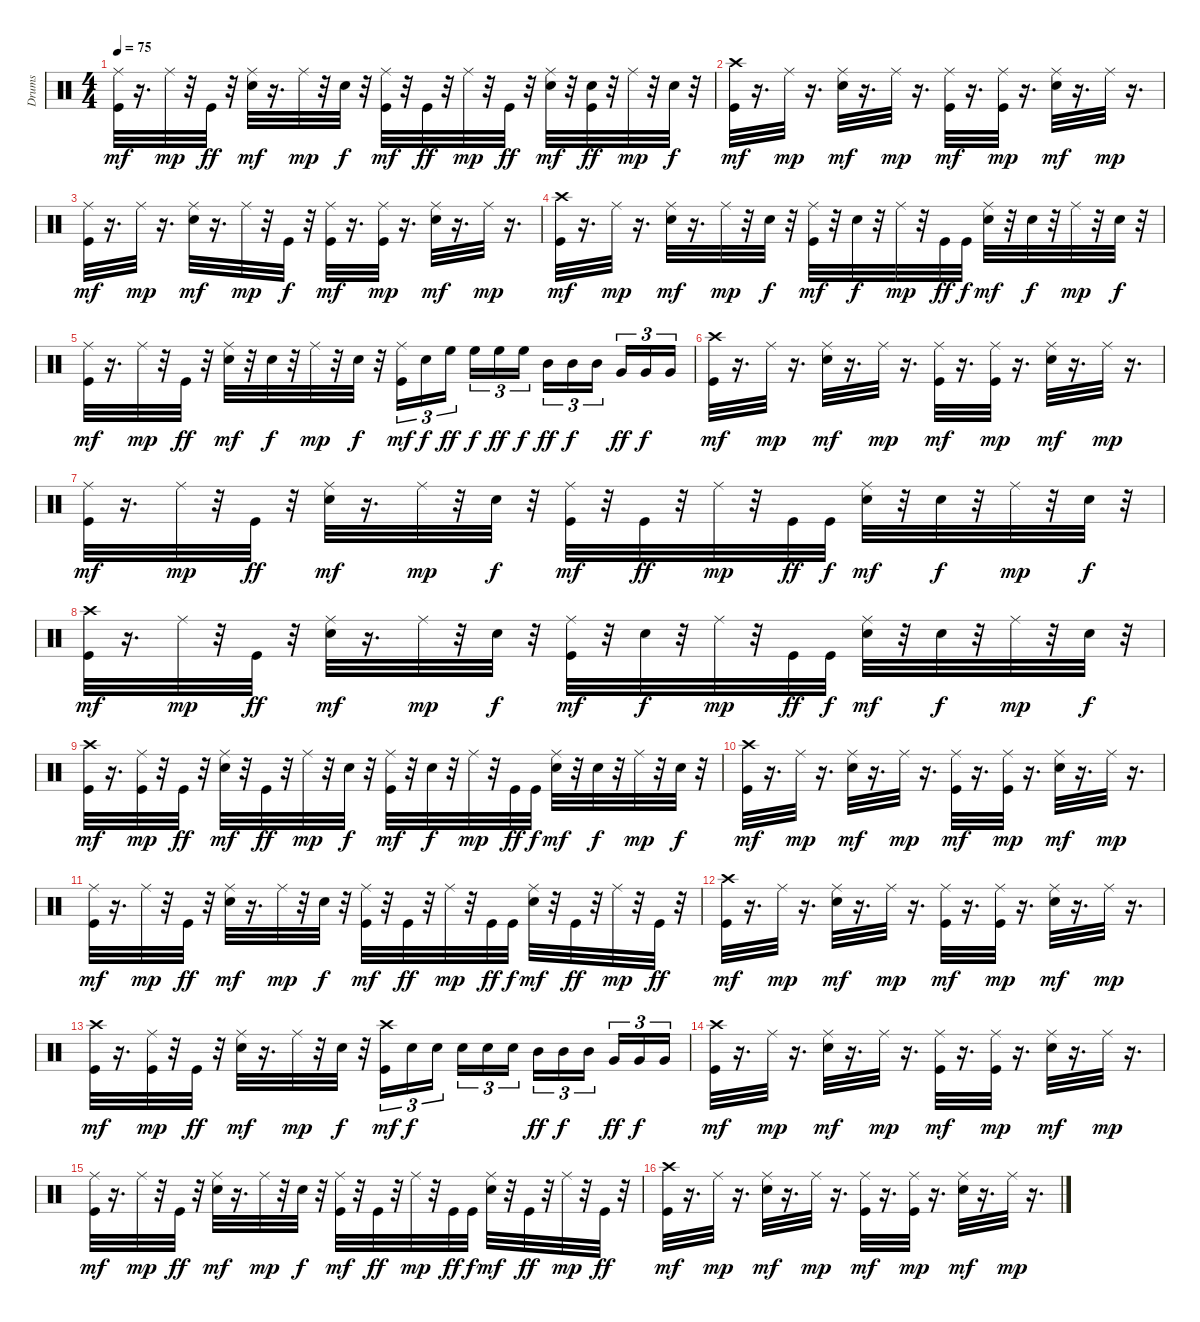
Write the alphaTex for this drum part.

\track ("Drums" "Drums") {instrument percussion}
\staff {score}
\articulation defaults
\ts (4 4)
\tempo 75
\clef neutral
\ks c
("Kick (hit)" "Ride (middle)").32{dy mf} r.16{d} "Ride (middle)".32{dy mp} r.32 "Kick (hit)".32{dy ff} r.32 ("Snare (hit) 2" "Ride (middle)").32{dy mf} r.16{d} "Ride (middle)".32{dy mp} r.32 "Snare (hit) 2".32{dy f} r.32 ("Kick (hit)" "Ride (middle)").32{dy mf} r.32 "Kick (hit)".32{dy ff} r.32 "Ride (middle)".32{dy mp} r.32 "Kick (hit)".32{dy ff} r.32 ("Snare (hit) 2" "Ride (middle)").32{dy mf} r.32 ("Kick (hit)" "Snare (hit) 2").32{dy ff} r.32 "Ride (middle)".32{dy mp} r.32 "Snare (hit) 2".32{dy f} r.32 |
("Kick (hit)" "Crash high (hit)").32{dy mf} r.16{d} "Ride (middle)".32{dy mp} r.16{d} ("Snare (hit) 2" "Ride (middle)").32{dy mf} r.16{d} "Ride (middle)".32{dy mp} r.16{d} ("Kick (hit)" "Ride (middle)").32{dy mf} r.16{d} ("Kick (hit)" "Ride (middle)").32{dy mp} r.16{d} ("Snare (hit) 2" "Ride (middle)").32{dy mf} r.16{d} "Ride (middle)".32{dy mp} r.16{d} |
("Kick (hit)" "Ride (middle)").32{dy mf} r.16{d} "Ride (middle)".32{dy mp} r.16{d} ("Snare (hit) 2" "Ride (middle)").32{dy mf} r.16{d} "Ride (middle)".32{dy mp} r.32 "Kick (hit)".32{dy f} r.32 ("Kick (hit)" "Ride (middle)").32{dy mf} r.16{d} ("Kick (hit)" "Ride (middle)").32{dy mp} r.16{d} ("Snare (hit) 2" "Ride (middle)").32{dy mf} r.16{d} "Ride (middle)".32{dy mp} r.16{d} |
("Kick (hit)" "Crash high (hit)").32{dy mf} r.16{d} "Ride (middle)".32{dy mp} r.16{d} ("Snare (hit) 2" "Ride (middle)").32{dy mf} r.16{d} "Ride (middle)".32{dy mp} r.32 "Snare (hit) 2".32{dy f} r.32 ("Kick (hit)" "Ride (middle)").32{dy mf} r.32 "Snare (hit) 2".32{dy f} r.32 "Ride (middle)".32{dy mp} r.32 "Kick (hit)".32{dy ff} "Kick (hit)".32{dy f} ("Snare (hit) 2" "Ride (middle)").32{dy mf} r.32 "Snare (hit) 2".32{dy f} r.32 "Ride (middle)".32{dy mp} r.32 "Snare (hit) 2".32{dy f} r.32 |
("Kick (hit)" "Ride (middle)").32{dy mf} r.16{d} "Ride (middle)".32{dy mp} r.32 "Kick (hit)".32{dy ff} r.32 ("Snare (hit) 2" "Ride (middle)").32{dy mf} r.32 "Snare (hit) 2".32{dy f} r.32 "Ride (middle)".32{dy mp} r.32 "Snare (hit) 2".32{dy f} r.32 ("Kick (hit)" "Ride (middle)").16{tu (3 2) dy mf} "Snare (hit) 2".16{tu (3 2) dy f} "High Floor Tom (hit)".16{tu (3 2) dy ff} "High Floor Tom (hit)".16{tu (3 2) dy f} "High Floor Tom (hit)".16{tu (3 2) dy ff} "High Floor Tom (hit)".16{tu (3 2) dy f} "Mid Tom (hit)".16{tu (3 2) dy ff} "Mid Tom (hit)".16{tu (3 2) dy f} "Mid Tom (hit)".16{tu (3 2)} "Very Low Tom (hit)".16{tu (3 2) dy ff} "Very Low Tom (hit)".16{tu (3 2) dy f} "Very Low Tom (hit)".16{tu (3 2)} |
("Kick (hit)" "Crash high (hit)").32{dy mf} r.16{d} "Ride (middle)".32{dy mp} r.16{d} ("Snare (hit) 2" "Ride (middle)").32{dy mf} r.16{d} "Ride (middle)".32{dy mp} r.16{d} ("Kick (hit)" "Ride (middle)").32{dy mf} r.16{d} ("Kick (hit)" "Ride (middle)").32{dy mp} r.16{d} ("Snare (hit) 2" "Ride (middle)").32{dy mf} r.16{d} "Ride (middle)".32{dy mp} r.16{d} |
("Kick (hit)" "Ride (middle)").32{dy mf} r.16{d} "Ride (middle)".32{dy mp} r.32 "Kick (hit)".32{dy ff} r.32 ("Snare (hit) 2" "Ride (middle)").32{dy mf} r.16{d} "Ride (middle)".32{dy mp} r.32 "Snare (hit) 2".32{dy f} r.32 ("Kick (hit)" "Ride (middle)").32{dy mf} r.32 "Kick (hit)".32{dy ff} r.32 "Ride (middle)".32{dy mp} r.32 "Kick (hit)".32{dy ff} "Kick (hit)".32{dy f} ("Snare (hit) 2" "Ride (middle)").32{dy mf} r.32 "Snare (hit) 2".32{dy f} r.32 "Ride (middle)".32{dy mp} r.32 "Snare (hit) 2".32{dy f} r.32 |
("Kick (hit)" "Crash high (hit)").32{dy mf} r.16{d} "Ride (middle)".32{dy mp} r.32 "Kick (hit)".32{dy ff} r.32 ("Snare (hit) 2" "Ride (middle)").32{dy mf} r.16{d} "Ride (middle)".32{dy mp} r.32 "Snare (hit) 2".32{dy f} r.32 ("Kick (hit)" "Ride (middle)").32{dy mf} r.32 "Snare (hit) 2".32{dy f} r.32 "Ride (middle)".32{dy mp} r.32 "Kick (hit)".32{dy ff} "Kick (hit)".32{dy f} ("Snare (hit) 2" "Ride (middle)").32{dy mf} r.32 "Snare (hit) 2".32{dy f} r.32 "Ride (middle)".32{dy mp} r.32 "Snare (hit) 2".32{dy f} r.32 |
("Kick (hit)" "Crash high (hit)").32{dy mf} r.16{d} ("Kick (hit)" "Ride (middle)").32{dy mp} r.32 "Kick (hit)".32{dy ff} r.32 ("Snare (hit) 2" "Ride (middle)").32{dy mf} r.32 "Kick (hit)".32{dy ff} r.32 "Ride (middle)".32{dy mp} r.32 "Snare (hit) 2".32{dy f} r.32 ("Kick (hit)" "Ride (middle)").32{dy mf} r.32 "Snare (hit) 2".32{dy f} r.32 "Ride (middle)".32{dy mp} r.32 "Kick (hit)".32{dy ff} "Kick (hit)".32{dy f} ("Snare (hit) 2" "Ride (middle)").32{dy mf} r.32 "Snare (hit) 2".32{dy f} r.32 "Ride (middle)".32{dy mp} r.32 "Snare (hit) 2".32{dy f} r.32 |
("Kick (hit)" "Crash high (hit)").32{dy mf} r.16{d} "Ride (middle)".32{dy mp} r.16{d} ("Snare (hit) 2" "Ride (middle)").32{dy mf} r.16{d} "Ride (middle)".32{dy mp} r.16{d} ("Kick (hit)" "Ride (middle)").32{dy mf} r.16{d} ("Kick (hit)" "Ride (middle)").32{dy mp} r.16{d} ("Snare (hit) 2" "Ride (middle)").32{dy mf} r.16{d} "Ride (middle)".32{dy mp} r.16{d} |
("Kick (hit)" "Ride (middle)").32{dy mf} r.16{d} "Ride (middle)".32{dy mp} r.32 "Kick (hit)".32{dy ff} r.32 ("Snare (hit) 2" "Ride (middle)").32{dy mf} r.16{d} "Ride (middle)".32{dy mp} r.32 "Snare (hit) 2".32{dy f} r.32 ("Kick (hit)" "Ride (middle)").32{dy mf} r.32 "Kick (hit)".32{dy ff} r.32 "Ride (middle)".32{dy mp} r.32 "Kick (hit)".32{dy ff} "Kick (hit)".32{dy f} ("Snare (hit) 2" "Ride (middle)").32{dy mf} r.32 "Kick (hit)".32{dy ff} r.32 "Ride (middle)".32{dy mp} r.32 "Kick (hit)".32{dy ff} r.32 |
("Kick (hit)" "Crash high (hit)").32{dy mf} r.16{d} "Ride (middle)".32{dy mp} r.16{d} ("Snare (hit) 2" "Ride (middle)").32{dy mf} r.16{d} "Ride (middle)".32{dy mp} r.16{d} ("Kick (hit)" "Ride (middle)").32{dy mf} r.16{d} ("Kick (hit)" "Ride (middle)").32{dy mp} r.16{d} ("Snare (hit) 2" "Ride (middle)").32{dy mf} r.16{d} "Ride (middle)".32{dy mp} r.16{d} |
("Kick (hit)" "Crash high (hit)").32{dy mf} r.16{d} ("Kick (hit)" "Ride (middle)").32{dy mp} r.32 "Kick (hit)".32{dy ff} r.32 ("Snare (hit) 2" "Ride (middle)").32{dy mf} r.16{d} "Ride (middle)".32{dy mp} r.32 "Snare (hit) 2".32{dy f} r.32 ("Kick (hit)" "Crash high (hit)").16{tu (3 2) dy mf} "Snare (hit) 2".16{tu (3 2) dy f} "Snare (hit) 2".16{tu (3 2)} "Snare (hit) 2".16{tu (3 2)} "Snare (hit) 2".16{tu (3 2)} "Snare (hit) 2".16{tu (3 2)} "Mid Tom (hit)".16{tu (3 2) dy ff} "Mid Tom (hit)".16{tu (3 2) dy f} "Mid Tom (hit)".16{tu (3 2)} "Very Low Tom (hit)".16{tu (3 2) dy ff} "Very Low Tom (hit)".16{tu (3 2) dy f} "Very Low Tom (hit)".16{tu (3 2)} |
("Kick (hit)" "Crash high (hit)").32{dy mf} r.16{d} "Ride (middle)".32{dy mp} r.16{d} ("Snare (hit) 2" "Ride (middle)").32{dy mf} r.16{d} "Ride (middle)".32{dy mp} r.16{d} ("Kick (hit)" "Ride (middle)").32{dy mf} r.16{d} ("Kick (hit)" "Ride (middle)").32{dy mp} r.16{d} ("Snare (hit) 2" "Ride (middle)").32{dy mf} r.16{d} "Ride (middle)".32{dy mp} r.16{d} |
("Kick (hit)" "Ride (middle)").32{dy mf} r.16{d} "Ride (middle)".32{dy mp} r.32 "Kick (hit)".32{dy ff} r.32 ("Snare (hit) 2" "Ride (middle)").32{dy mf} r.16{d} "Ride (middle)".32{dy mp} r.32 "Snare (hit) 2".32{dy f} r.32 ("Kick (hit)" "Ride (middle)").32{dy mf} r.32 "Kick (hit)".32{dy ff} r.32 "Ride (middle)".32{dy mp} r.32 "Kick (hit)".32{dy ff} "Kick (hit)".32{dy f} ("Snare (hit) 2" "Ride (middle)").32{dy mf} r.32 "Kick (hit)".32{dy ff} r.32 "Ride (middle)".32{dy mp} r.32 "Kick (hit)".32{dy ff} r.32 |
("Kick (hit)" "Crash high (hit)").32{dy mf} r.16{d} "Ride (middle)".32{dy mp} r.16{d} ("Snare (hit) 2" "Ride (middle)").32{dy mf} r.16{d} "Ride (middle)".32{dy mp} r.16{d} ("Kick (hit)" "Ride (middle)").32{dy mf} r.16{d} ("Kick (hit)" "Ride (middle)").32{dy mp} r.16{d} ("Snare (hit) 2" "Ride (middle)").32{dy mf} r.16{d} "Ride (middle)".32{dy mp} r.16{d}
